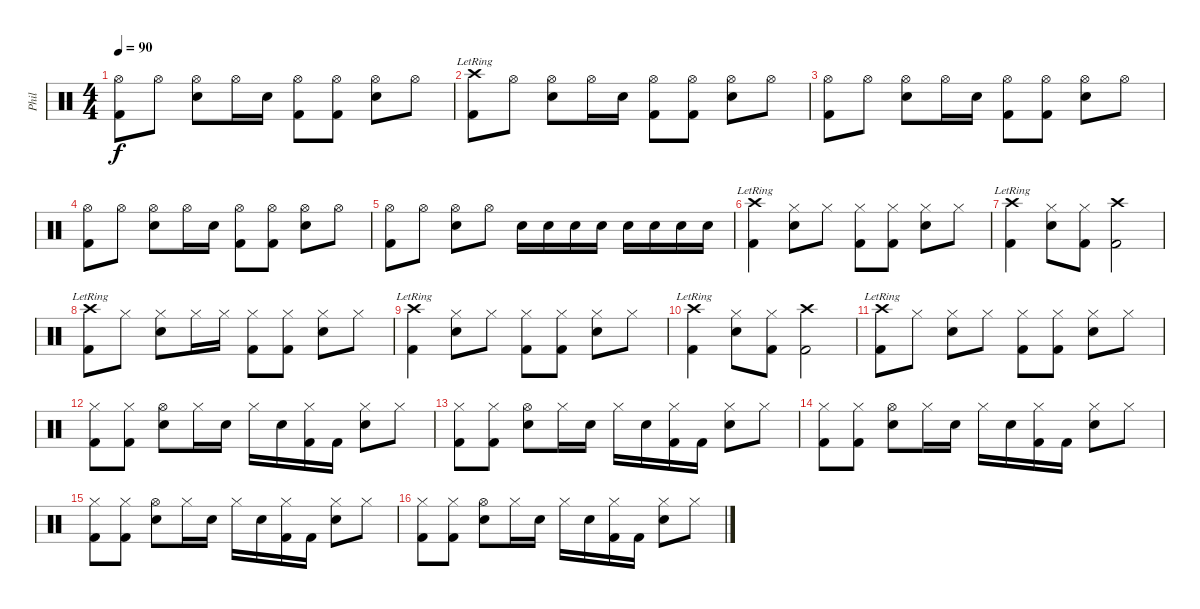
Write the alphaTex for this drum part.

\track ("Phil" "Phil") {instrument percussion}
\staff {score}
\articulation defaults
\ts (4 4)
\tempo 90
\clef neutral
\ks c
("Kick (hit) 2" "Hi-Hat (open)").8{dy f} "Hi-Hat (open)".8 ("Snare (hit) 2" "Hi-Hat (open)").8 "Hi-Hat (open)".16 "Snare (hit) 2".16 ("Kick (hit) 2" "Hi-Hat (open)").8 ("Kick (hit) 2" "Hi-Hat (open)").8 ("Snare (hit) 2" "Hi-Hat (open)").8 "Hi-Hat (open)".8 |
("Kick (hit) 2" "Crash high (hit)"{lr}).8 "Hi-Hat (open)".8 ("Snare (hit) 2" "Hi-Hat (open)").8 "Hi-Hat (open)".16 "Snare (hit) 2".16 ("Kick (hit) 2" "Hi-Hat (open)").8 ("Kick (hit) 2" "Hi-Hat (open)").8 ("Snare (hit) 2" "Hi-Hat (open)").8 "Hi-Hat (open)".8 |
("Kick (hit) 2" "Hi-Hat (open)").8 "Hi-Hat (open)".8 ("Snare (hit) 2" "Hi-Hat (open)").8 "Hi-Hat (open)".16 "Snare (hit) 2".16 ("Kick (hit) 2" "Hi-Hat (open)").8 ("Kick (hit) 2" "Hi-Hat (open)").8 ("Snare (hit) 2" "Hi-Hat (open)").8 "Hi-Hat (open)".8 |
("Kick (hit) 2" "Hi-Hat (open)").8 "Hi-Hat (open)".8 ("Snare (hit) 2" "Hi-Hat (open)").8 "Hi-Hat (open)".16 "Snare (hit) 2".16 ("Kick (hit) 2" "Hi-Hat (open)").8 ("Kick (hit) 2" "Hi-Hat (open)").8 ("Snare (hit) 2" "Hi-Hat (open)").8 "Hi-Hat (open)".8 |
("Kick (hit) 2" "Hi-Hat (open)").8 "Hi-Hat (open)".8 ("Snare (hit) 2" "Hi-Hat (open)").8 "Hi-Hat (open)".8 "Snare (hit) 2".16 "Snare (hit) 2".16 "Snare (hit) 2".16 "Snare (hit) 2".16 "Snare (hit) 2".16 "Snare (hit) 2".16 "Snare (hit) 2".16 "Snare (hit) 2".16 |
("Kick (hit) 2" "Crash high (hit)"{lr}).4 ("Snare (hit) 2" "Hi-Hat (closed)").8 "Hi-Hat (closed)".8 ("Kick (hit) 2" "Hi-Hat (closed)").8 ("Kick (hit) 2" "Hi-Hat (closed)").8 ("Snare (hit) 2" "Hi-Hat (closed)").8 "Hi-Hat (closed)".8 |
("Kick (hit) 2" "Crash high (hit)"{lr}).4 ("Snare (hit) 2" "Hi-Hat (closed)").8 ("Kick (hit) 2" "Hi-Hat (closed)").8 ("Kick (hit) 2" "Crash high (hit)").2 |
("Kick (hit) 2" "Crash high (hit)"{lr}).8 "Hi-Hat (closed)".8 ("Snare (hit) 2" "Hi-Hat (closed)").8 "Hi-Hat (closed)".16 "Hi-Hat (closed)".16 ("Kick (hit) 2" "Hi-Hat (closed)").8 ("Kick (hit) 2" "Hi-Hat (closed)").8 ("Snare (hit) 2" "Hi-Hat (closed)").8 "Hi-Hat (closed)".8 |
("Kick (hit) 2" "Crash high (hit)"{lr}).4 ("Snare (hit) 2" "Hi-Hat (closed)").8 "Hi-Hat (closed)".8 ("Kick (hit) 2" "Hi-Hat (closed)").8 ("Kick (hit) 2" "Hi-Hat (closed)").8 ("Snare (hit) 2" "Hi-Hat (closed)").8 "Hi-Hat (closed)".8 |
("Kick (hit) 2" "Crash high (hit)"{lr}).4 ("Snare (hit) 2" "Hi-Hat (closed)").8 ("Kick (hit) 2" "Hi-Hat (closed)").8 ("Kick (hit) 2" "Crash high (hit)").2 |
("Kick (hit) 2" "Crash high (hit)"{lr}).8 "Hi-Hat (closed)".8 ("Snare (hit) 2" "Hi-Hat (closed)").8 "Hi-Hat (closed)".8 ("Kick (hit) 2" "Hi-Hat (closed)").8 ("Kick (hit) 2" "Hi-Hat (closed)").8 ("Snare (hit) 2" "Hi-Hat (closed)").8 "Hi-Hat (closed)".8 |
("Kick (hit) 2" "Hi-Hat (closed)").8 ("Kick (hit) 2" "Hi-Hat (closed)").8 ("Snare (hit) 2" "Hi-Hat (open)").8 "Hi-Hat (closed)".16 "Snare (hit) 2".16 "Hi-Hat (closed)".16 "Snare (hit) 2".16 ("Kick (hit) 2" "Hi-Hat (closed)").16 "Kick (hit) 2".16 ("Snare (hit) 2" "Hi-Hat (closed)").8 "Hi-Hat (closed)".8 |
("Kick (hit) 2" "Hi-Hat (closed)").8 ("Kick (hit) 2" "Hi-Hat (closed)").8 ("Snare (hit) 2" "Hi-Hat (open)").8 "Hi-Hat (closed)".16 "Snare (hit) 2".16 "Hi-Hat (closed)".16 "Snare (hit) 2".16 ("Kick (hit) 2" "Hi-Hat (closed)").16 "Kick (hit) 2".16 ("Snare (hit) 2" "Hi-Hat (closed)").8 "Hi-Hat (closed)".8 |
("Kick (hit) 2" "Hi-Hat (closed)").8 ("Kick (hit) 2" "Hi-Hat (closed)").8 ("Snare (hit) 2" "Hi-Hat (open)").8 "Hi-Hat (closed)".16 "Snare (hit) 2".16 "Hi-Hat (closed)".16 "Snare (hit) 2".16 ("Kick (hit) 2" "Hi-Hat (closed)").16 "Kick (hit) 2".16 ("Snare (hit) 2" "Hi-Hat (closed)").8 "Hi-Hat (closed)".8 |
("Kick (hit) 2" "Hi-Hat (closed)").8 ("Kick (hit) 2" "Hi-Hat (closed)").8 ("Snare (hit) 2" "Hi-Hat (open)").8 "Hi-Hat (closed)".16 "Snare (hit) 2".16 "Hi-Hat (closed)".16 "Snare (hit) 2".16 ("Kick (hit) 2" "Hi-Hat (closed)").16 "Kick (hit) 2".16 ("Snare (hit) 2" "Hi-Hat (closed)").8 "Hi-Hat (closed)".8 |
("Kick (hit) 2" "Hi-Hat (closed)").8 ("Kick (hit) 2" "Hi-Hat (closed)").8 ("Snare (hit) 2" "Hi-Hat (open)").8 "Hi-Hat (closed)".16 "Snare (hit) 2".16 "Hi-Hat (closed)".16 "Snare (hit) 2".16 ("Kick (hit) 2" "Hi-Hat (closed)").16 "Kick (hit) 2".16 ("Snare (hit) 2" "Hi-Hat (closed)").8 "Hi-Hat (closed)".8
